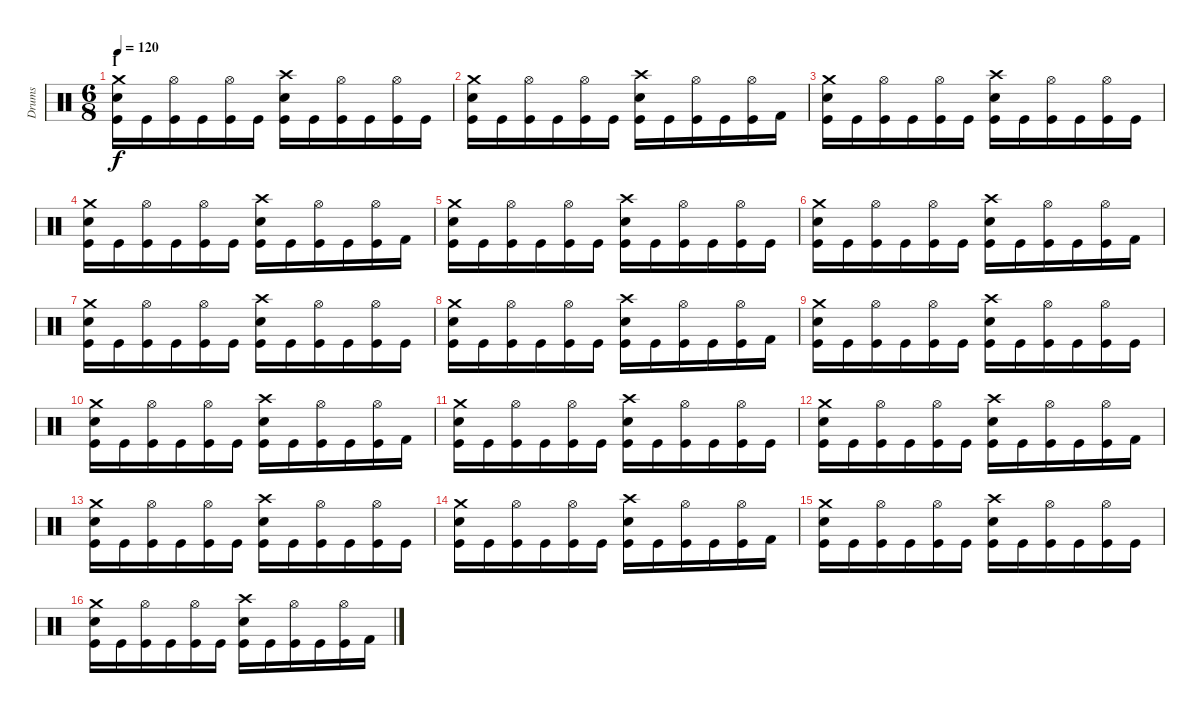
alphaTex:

\track ("Drums" "Drums") {instrument percussion}
\staff {score}
\articulation defaults
\ts (6 8)
\section ("" "I")
\tempo 120
\clef neutral
\ks c
("Crash medium (hit)" "Electric Snare (hit)" "Kick (hit)").16{dy f beam merge} "Kick (hit)".16 ("Hi-Hat (open)" "Kick (hit)").16 "Kick (hit)".16 ("Hi-Hat (open)" "Kick (hit)").16 "Kick (hit)".16 ("Crash high (hit)" "Electric Snare (hit)" "Kick (hit)").16{beam merge} "Kick (hit)".16 ("Hi-Hat (open)" "Kick (hit)").16 "Kick (hit)".16 ("Hi-Hat (open)" "Kick (hit)").16 "Kick (hit)".16 |
("Crash medium (hit)" "Electric Snare (hit)" "Kick (hit)").16 "Kick (hit)".16 ("Hi-Hat (open)" "Kick (hit)").16 "Kick (hit)".16 ("Hi-Hat (open)" "Kick (hit)").16 "Kick (hit)".16 ("Crash high (hit)" "Electric Snare (hit)" "Kick (hit)").16{beam merge} "Kick (hit)".16{beam merge} ("Hi-Hat (open)" "Kick (hit)").16{beam merge} "Kick (hit)".16 ("Hi-Hat (open)" "Kick (hit)").16 "Kick (hit) 2".16 |
("Crash medium (hit)" "Electric Snare (hit)" "Kick (hit)").16{beam merge} "Kick (hit)".16 ("Hi-Hat (open)" "Kick (hit)").16 "Kick (hit)".16 ("Hi-Hat (open)" "Kick (hit)").16 "Kick (hit)".16 ("Crash high (hit)" "Electric Snare (hit)" "Kick (hit)").16{beam merge} "Kick (hit)".16 ("Hi-Hat (open)" "Kick (hit)").16 "Kick (hit)".16 ("Hi-Hat (open)" "Kick (hit)").16 "Kick (hit)".16 |
("Crash medium (hit)" "Electric Snare (hit)" "Kick (hit)").16 "Kick (hit)".16 ("Hi-Hat (open)" "Kick (hit)").16 "Kick (hit)".16 ("Hi-Hat (open)" "Kick (hit)").16 "Kick (hit)".16 ("Crash high (hit)" "Electric Snare (hit)" "Kick (hit)").16{beam merge} "Kick (hit)".16{beam merge} ("Hi-Hat (open)" "Kick (hit)").16{beam merge} "Kick (hit)".16 ("Hi-Hat (open)" "Kick (hit)").16 "Kick (hit) 2".16 |
("Crash medium (hit)" "Electric Snare (hit)" "Kick (hit)").16{beam merge} "Kick (hit)".16 ("Hi-Hat (open)" "Kick (hit)").16 "Kick (hit)".16 ("Hi-Hat (open)" "Kick (hit)").16 "Kick (hit)".16 ("Crash high (hit)" "Electric Snare (hit)" "Kick (hit)").16{beam merge} "Kick (hit)".16 ("Hi-Hat (open)" "Kick (hit)").16 "Kick (hit)".16 ("Hi-Hat (open)" "Kick (hit)").16 "Kick (hit)".16 |
("Crash medium (hit)" "Electric Snare (hit)" "Kick (hit)").16 "Kick (hit)".16 ("Hi-Hat (open)" "Kick (hit)").16 "Kick (hit)".16 ("Hi-Hat (open)" "Kick (hit)").16 "Kick (hit)".16 ("Crash high (hit)" "Electric Snare (hit)" "Kick (hit)").16{beam merge} "Kick (hit)".16{beam merge} ("Hi-Hat (open)" "Kick (hit)").16{beam merge} "Kick (hit)".16 ("Hi-Hat (open)" "Kick (hit)").16 "Kick (hit) 2".16 |
("Crash medium (hit)" "Electric Snare (hit)" "Kick (hit)").16{beam merge} "Kick (hit)".16 ("Hi-Hat (open)" "Kick (hit)").16 "Kick (hit)".16 ("Hi-Hat (open)" "Kick (hit)").16 "Kick (hit)".16 ("Crash high (hit)" "Electric Snare (hit)" "Kick (hit)").16{beam merge} "Kick (hit)".16 ("Hi-Hat (open)" "Kick (hit)").16 "Kick (hit)".16 ("Hi-Hat (open)" "Kick (hit)").16 "Kick (hit)".16 |
("Crash medium (hit)" "Electric Snare (hit)" "Kick (hit)").16 "Kick (hit)".16 ("Hi-Hat (open)" "Kick (hit)").16 "Kick (hit)".16 ("Hi-Hat (open)" "Kick (hit)").16 "Kick (hit)".16 ("Crash high (hit)" "Electric Snare (hit)" "Kick (hit)").16{beam merge} "Kick (hit)".16{beam merge} ("Hi-Hat (open)" "Kick (hit)").16{beam merge} "Kick (hit)".16 ("Hi-Hat (open)" "Kick (hit)").16 "Kick (hit) 2".16 |
("Crash medium (hit)" "Electric Snare (hit)" "Kick (hit)").16{beam merge} "Kick (hit)".16 ("Hi-Hat (open)" "Kick (hit)").16 "Kick (hit)".16 ("Hi-Hat (open)" "Kick (hit)").16 "Kick (hit)".16 ("Crash high (hit)" "Electric Snare (hit)" "Kick (hit)").16{beam merge} "Kick (hit)".16 ("Hi-Hat (open)" "Kick (hit)").16 "Kick (hit)".16 ("Hi-Hat (open)" "Kick (hit)").16 "Kick (hit)".16 |
("Crash medium (hit)" "Electric Snare (hit)" "Kick (hit)").16 "Kick (hit)".16 ("Hi-Hat (open)" "Kick (hit)").16 "Kick (hit)".16 ("Hi-Hat (open)" "Kick (hit)").16 "Kick (hit)".16 ("Crash high (hit)" "Electric Snare (hit)" "Kick (hit)").16{beam merge} "Kick (hit)".16{beam merge} ("Hi-Hat (open)" "Kick (hit)").16{beam merge} "Kick (hit)".16 ("Hi-Hat (open)" "Kick (hit)").16 "Kick (hit) 2".16 |
("Crash medium (hit)" "Electric Snare (hit)" "Kick (hit)").16{beam merge} "Kick (hit)".16 ("Hi-Hat (open)" "Kick (hit)").16 "Kick (hit)".16 ("Hi-Hat (open)" "Kick (hit)").16 "Kick (hit)".16 ("Crash high (hit)" "Electric Snare (hit)" "Kick (hit)").16{beam merge} "Kick (hit)".16 ("Hi-Hat (open)" "Kick (hit)").16 "Kick (hit)".16 ("Hi-Hat (open)" "Kick (hit)").16 "Kick (hit)".16 |
("Crash medium (hit)" "Electric Snare (hit)" "Kick (hit)").16 "Kick (hit)".16 ("Hi-Hat (open)" "Kick (hit)").16 "Kick (hit)".16 ("Hi-Hat (open)" "Kick (hit)").16 "Kick (hit)".16 ("Crash high (hit)" "Electric Snare (hit)" "Kick (hit)").16{beam merge} "Kick (hit)".16{beam merge} ("Hi-Hat (open)" "Kick (hit)").16{beam merge} "Kick (hit)".16 ("Hi-Hat (open)" "Kick (hit)").16 "Kick (hit) 2".16 |
("Crash medium (hit)" "Electric Snare (hit)" "Kick (hit)").16{beam merge} "Kick (hit)".16 ("Hi-Hat (open)" "Kick (hit)").16 "Kick (hit)".16 ("Hi-Hat (open)" "Kick (hit)").16 "Kick (hit)".16 ("Crash high (hit)" "Electric Snare (hit)" "Kick (hit)").16{beam merge} "Kick (hit)".16 ("Hi-Hat (open)" "Kick (hit)").16 "Kick (hit)".16 ("Hi-Hat (open)" "Kick (hit)").16 "Kick (hit)".16 |
("Crash medium (hit)" "Electric Snare (hit)" "Kick (hit)").16 "Kick (hit)".16 ("Hi-Hat (open)" "Kick (hit)").16 "Kick (hit)".16 ("Hi-Hat (open)" "Kick (hit)").16 "Kick (hit)".16 ("Crash high (hit)" "Electric Snare (hit)" "Kick (hit)").16{beam merge} "Kick (hit)".16{beam merge} ("Hi-Hat (open)" "Kick (hit)").16{beam merge} "Kick (hit)".16 ("Hi-Hat (open)" "Kick (hit)").16 "Kick (hit) 2".16 |
("Crash medium (hit)" "Electric Snare (hit)" "Kick (hit)").16{beam merge} "Kick (hit)".16 ("Hi-Hat (open)" "Kick (hit)").16 "Kick (hit)".16 ("Hi-Hat (open)" "Kick (hit)").16 "Kick (hit)".16 ("Crash high (hit)" "Electric Snare (hit)" "Kick (hit)").16{beam merge} "Kick (hit)".16 ("Hi-Hat (open)" "Kick (hit)").16 "Kick (hit)".16 ("Hi-Hat (open)" "Kick (hit)").16 "Kick (hit)".16 |
("Crash medium (hit)" "Electric Snare (hit)" "Kick (hit)").16 "Kick (hit)".16 ("Hi-Hat (open)" "Kick (hit)").16 "Kick (hit)".16 ("Hi-Hat (open)" "Kick (hit)").16 "Kick (hit)".16 ("Crash high (hit)" "Electric Snare (hit)" "Kick (hit)").16{beam merge} "Kick (hit)".16{beam merge} ("Hi-Hat (open)" "Kick (hit)").16{beam merge} "Kick (hit)".16 ("Hi-Hat (open)" "Kick (hit)").16 "Kick (hit) 2".16
